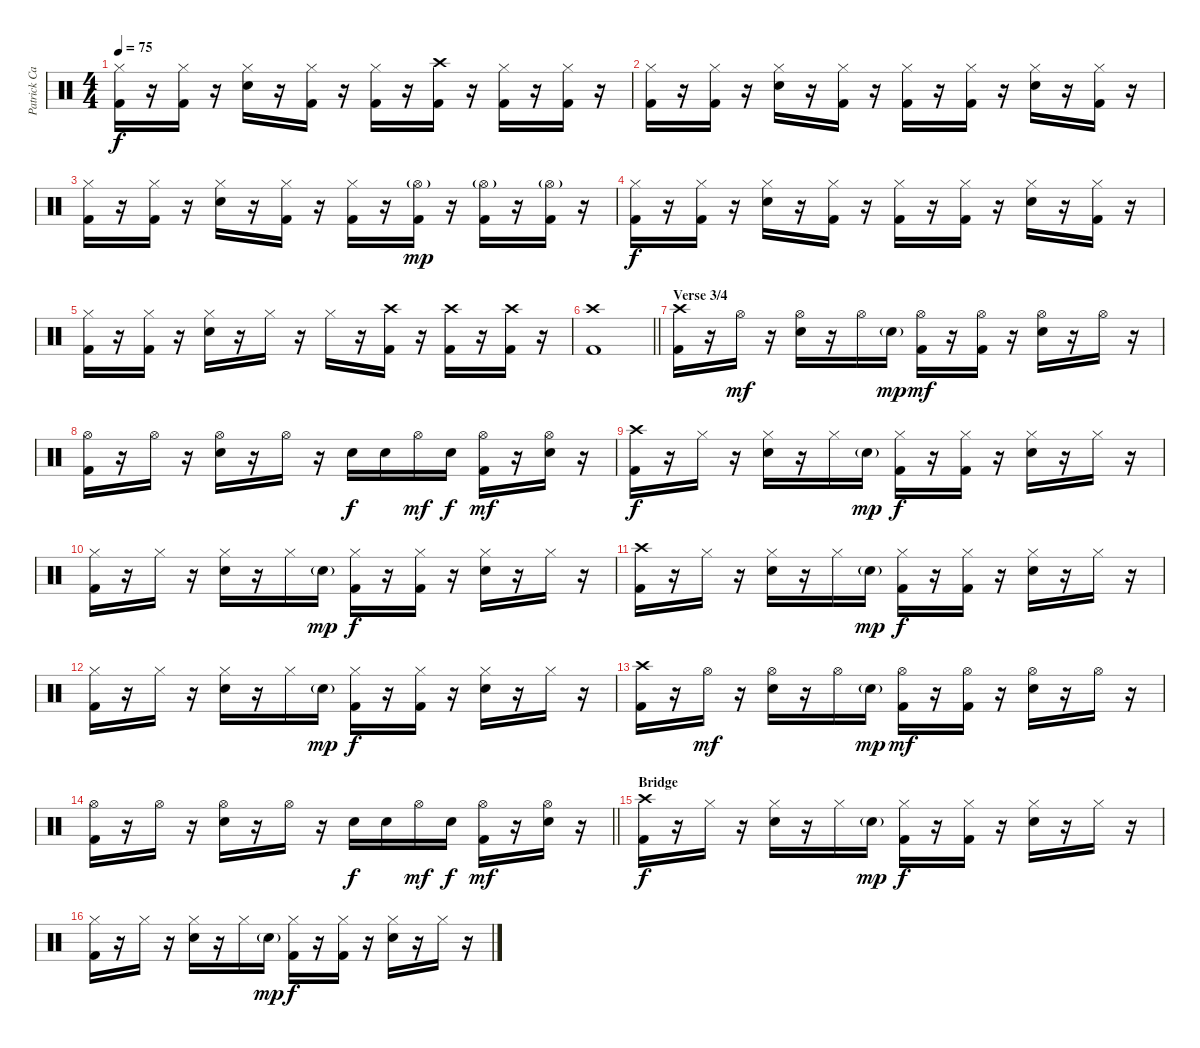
\track ("Patrick Carney - Drums" "Patrick Ca") {instrument percussion}
\staff {score}
\articulation defaults
\ts (4 4)
\tempo 75
\clef neutral
\ks c
("Hi-Hat (closed)" "Kick (hit) 2").16{dy f} r.16 ("Hi-Hat (closed)" "Kick (hit) 2").16 r.16 ("Hi-Hat (closed)" "Electric Snare (hit)").16 r.16 ("Hi-Hat (closed)" "Kick (hit) 2").16 r.16 ("Hi-Hat (closed)" "Kick (hit) 2").16 r.16 ("Crash high (hit)" "Kick (hit) 2").16 r.16 ("Hi-Hat (closed)" "Kick (hit) 2").16 r.16 ("Hi-Hat (closed)" "Kick (hit) 2").16 r.16 |
("Hi-Hat (closed)" "Kick (hit) 2").16 r.16 ("Hi-Hat (closed)" "Kick (hit) 2").16 r.16 ("Hi-Hat (closed)" "Electric Snare (hit)").16 r.16 ("Hi-Hat (closed)" "Kick (hit) 2").16 r.16 ("Hi-Hat (closed)" "Kick (hit) 2").16 r.16 ("Hi-Hat (closed)" "Kick (hit) 2").16 r.16 ("Hi-Hat (closed)" "Electric Snare (hit)").16 r.16 ("Hi-Hat (closed)" "Kick (hit) 2").16 r.16 |
("Hi-Hat (closed)" "Kick (hit) 2").16 r.16 ("Hi-Hat (closed)" "Kick (hit) 2").16 r.16 ("Hi-Hat (closed)" "Electric Snare (hit)").16 r.16 ("Hi-Hat (closed)" "Kick (hit) 2").16 r.16 ("Hi-Hat (closed)" "Kick (hit) 2").16 r.16 ("Hi-Hat (open)"{g} "Kick (hit) 2").16{dy mp} r.16 ("Hi-Hat (open)"{g} "Kick (hit) 2").16 r.16 ("Hi-Hat (open)"{g} "Kick (hit) 2").16 r.16 |
("Hi-Hat (closed)" "Kick (hit) 2").16{dy f} r.16 ("Hi-Hat (closed)" "Kick (hit) 2").16 r.16 ("Hi-Hat (closed)" "Electric Snare (hit)").16 r.16 ("Hi-Hat (closed)" "Kick (hit) 2").16 r.16 ("Hi-Hat (closed)" "Kick (hit) 2").16 r.16 ("Hi-Hat (closed)" "Kick (hit) 2").16 r.16 ("Hi-Hat (closed)" "Electric Snare (hit)").16 r.16 ("Hi-Hat (closed)" "Kick (hit) 2").16 r.16 |
("Hi-Hat (closed)" "Kick (hit) 2").16 r.16 ("Hi-Hat (closed)" "Kick (hit) 2").16 r.16 ("Hi-Hat (closed)" "Electric Snare (hit)").16 r.16 "Hi-Hat (closed)".16 r.16 "Hi-Hat (closed)".16 r.16 ("Crash high (hit)" "Kick (hit) 2").16 r.16 ("Crash high (hit)" "Kick (hit) 2").16 r.16 ("Crash high (hit)" "Kick (hit) 2").16 r.16 |
\barLineRight lightlight
("Crash high (hit)" "Kick (hit) 2").1 |
\section ("" "Verse 3/4")
("Crash high (hit)" "Kick (hit) 2").16 r.16 "Hi-Hat (open)".16{dy mf} r.16 ("Hi-Hat (open)" "Electric Snare (hit)").16 r.16 "Hi-Hat (open)".16 "Electric Snare (hit)"{g}.16{dy mp} ("Hi-Hat (open)" "Kick (hit) 2").16{dy mf} r.16 ("Hi-Hat (open)" "Kick (hit) 2").16 r.16 ("Hi-Hat (open)" "Electric Snare (hit)").16 r.16 "Hi-Hat (open)".16 r.16 |
("Hi-Hat (open)" "Kick (hit) 2").16 r.16 "Hi-Hat (open)".16 r.16 ("Hi-Hat (open)" "Electric Snare (hit)").16 r.16 "Hi-Hat (open)".16 r.16 "Electric Snare (hit)".16{dy f} "Electric Snare (hit)".16 "Hi-Hat (open)".16{dy mf} "Electric Snare (hit)".16{dy f} ("Hi-Hat (open)" "Kick (hit) 2").16{dy mf} r.16 ("Hi-Hat (open)" "Electric Snare (hit)").16 r.16 |
("Crash high (hit)" "Kick (hit) 2").16{dy f} r.16 "Hi-Hat (closed)".16 r.16 ("Hi-Hat (closed)" "Electric Snare (hit)").16 r.16 "Hi-Hat (closed)".16 "Electric Snare (hit)"{g}.16{dy mp} ("Hi-Hat (closed)" "Kick (hit) 2").16{dy f} r.16 ("Hi-Hat (closed)" "Kick (hit) 2").16 r.16 ("Hi-Hat (closed)" "Electric Snare (hit)").16 r.16 "Hi-Hat (closed)".16 r.16 |
("Hi-Hat (closed)" "Kick (hit) 2").16 r.16 "Hi-Hat (closed)".16 r.16 ("Hi-Hat (closed)" "Electric Snare (hit)").16 r.16 "Hi-Hat (closed)".16 "Electric Snare (hit)"{g}.16{dy mp} ("Hi-Hat (closed)" "Kick (hit) 2").16{dy f} r.16 ("Hi-Hat (closed)" "Kick (hit) 2").16 r.16 ("Hi-Hat (closed)" "Electric Snare (hit)").16 r.16 "Hi-Hat (closed)".16 r.16 |
("Crash high (hit)" "Kick (hit) 2").16 r.16 "Hi-Hat (closed)".16 r.16 ("Hi-Hat (closed)" "Electric Snare (hit)").16 r.16 "Hi-Hat (closed)".16 "Electric Snare (hit)"{g}.16{dy mp} ("Hi-Hat (closed)" "Kick (hit) 2").16{dy f} r.16 ("Hi-Hat (closed)" "Kick (hit) 2").16 r.16 ("Hi-Hat (closed)" "Electric Snare (hit)").16 r.16 "Hi-Hat (closed)".16 r.16 |
("Hi-Hat (closed)" "Kick (hit) 2").16 r.16 "Hi-Hat (closed)".16 r.16 ("Hi-Hat (closed)" "Electric Snare (hit)").16 r.16 "Hi-Hat (closed)".16 "Electric Snare (hit)"{g}.16{dy mp} ("Hi-Hat (closed)" "Kick (hit) 2").16{dy f} r.16 ("Hi-Hat (closed)" "Kick (hit) 2").16 r.16 ("Hi-Hat (closed)" "Electric Snare (hit)").16 r.16 "Hi-Hat (closed)".16 r.16 |
("Crash high (hit)" "Kick (hit) 2").16 r.16 "Hi-Hat (open)".16{dy mf} r.16 ("Hi-Hat (open)" "Electric Snare (hit)").16 r.16 "Hi-Hat (open)".16 "Electric Snare (hit)"{g}.16{dy mp} ("Hi-Hat (open)" "Kick (hit) 2").16{dy mf} r.16 ("Hi-Hat (open)" "Kick (hit) 2").16 r.16 ("Hi-Hat (open)" "Electric Snare (hit)").16 r.16 "Hi-Hat (open)".16 r.16 |
\barLineRight lightlight
("Hi-Hat (open)" "Kick (hit) 2").16 r.16 "Hi-Hat (open)".16 r.16 ("Hi-Hat (open)" "Electric Snare (hit)").16 r.16 "Hi-Hat (open)".16 r.16 "Electric Snare (hit)".16{dy f} "Electric Snare (hit)".16 "Hi-Hat (open)".16{dy mf} "Electric Snare (hit)".16{dy f} ("Hi-Hat (open)" "Kick (hit) 2").16{dy mf} r.16 ("Hi-Hat (open)" "Electric Snare (hit)").16 r.16 |
\section ("" "Bridge")
("Crash high (hit)" "Kick (hit) 2").16{dy f} r.16 "Hi-Hat (closed)".16 r.16 ("Hi-Hat (closed)" "Electric Snare (hit)").16 r.16 "Hi-Hat (closed)".16 "Electric Snare (hit)"{g}.16{dy mp} ("Hi-Hat (closed)" "Kick (hit) 2").16{dy f} r.16 ("Hi-Hat (closed)" "Kick (hit) 2").16 r.16 ("Hi-Hat (closed)" "Electric Snare (hit)").16 r.16 "Hi-Hat (closed)".16 r.16 |
("Hi-Hat (closed)" "Kick (hit) 2").16 r.16 "Hi-Hat (closed)".16 r.16 ("Hi-Hat (closed)" "Electric Snare (hit)").16 r.16 "Hi-Hat (closed)".16 "Electric Snare (hit)"{g}.16{dy mp} ("Hi-Hat (closed)" "Kick (hit) 2").16{dy f} r.16 ("Hi-Hat (closed)" "Kick (hit) 2").16 r.16 ("Hi-Hat (closed)" "Electric Snare (hit)").16 r.16 "Hi-Hat (closed)".16 r.16
